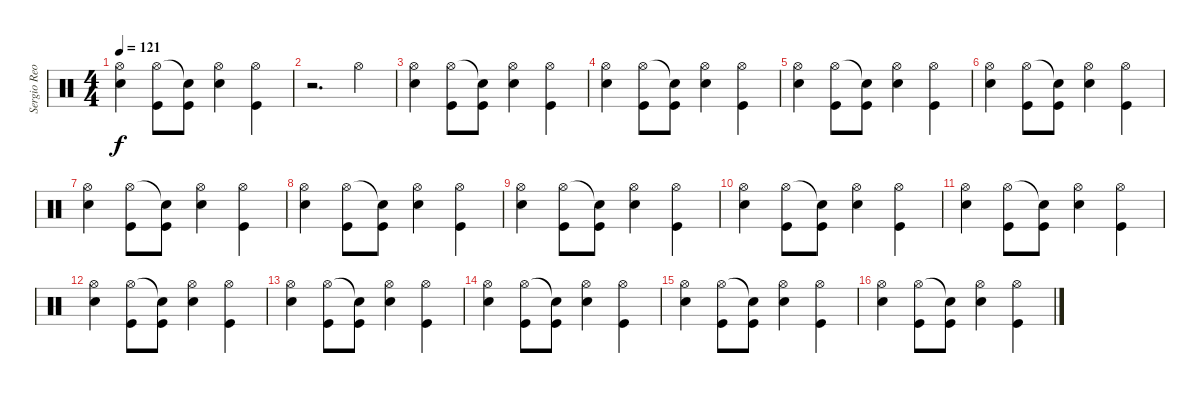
\track ("Sergio Reoli" "Sergio Reo") {instrument percussion}
\staff {score}
\articulation defaults
\ts (4 4)
\tempo 121
\clef neutral
\ks c
("Snare (hit) 2" "Hi-Hat (open)").4{dy f} ("Hi-Hat (open)" "Kick (hit)").8 ("Snare (hit)"{t} "Kick (hit)").8 ("Snare (hit) 2" "Hi-Hat (open)").4 ("Hi-Hat (open)" "Kick (hit)").4 |
r.2{d} "Hi-Hat (open)".4 |
("Snare (hit) 2" "Hi-Hat (open)").4 ("Hi-Hat (open)" "Kick (hit)").8 ("Snare (hit)"{t} "Kick (hit)").8 ("Snare (hit) 2" "Hi-Hat (open)").4 ("Hi-Hat (open)" "Kick (hit)").4 |
("Snare (hit) 2" "Hi-Hat (open)").4 ("Hi-Hat (open)" "Kick (hit)").8 ("Snare (hit)"{t} "Kick (hit)").8 ("Snare (hit) 2" "Hi-Hat (open)").4 ("Hi-Hat (open)" "Kick (hit)").4 |
("Snare (hit) 2" "Hi-Hat (open)").4 ("Hi-Hat (open)" "Kick (hit)").8 ("Snare (hit)"{t} "Kick (hit)").8 ("Snare (hit) 2" "Hi-Hat (open)").4 ("Hi-Hat (open)" "Kick (hit)").4 |
("Snare (hit) 2" "Hi-Hat (open)").4 ("Hi-Hat (open)" "Kick (hit)").8 ("Snare (hit)"{t} "Kick (hit)").8 ("Snare (hit) 2" "Hi-Hat (open)").4 ("Hi-Hat (open)" "Kick (hit)").4 |
("Snare (hit) 2" "Hi-Hat (open)").4 ("Hi-Hat (open)" "Kick (hit)").8 ("Snare (hit)"{t} "Kick (hit)").8 ("Snare (hit) 2" "Hi-Hat (open)").4 ("Hi-Hat (open)" "Kick (hit)").4 |
("Snare (hit) 2" "Hi-Hat (open)").4 ("Hi-Hat (open)" "Kick (hit)").8 ("Snare (hit)"{t} "Kick (hit)").8 ("Snare (hit) 2" "Hi-Hat (open)").4 ("Hi-Hat (open)" "Kick (hit)").4 |
("Snare (hit) 2" "Hi-Hat (open)").4 ("Hi-Hat (open)" "Kick (hit)").8 ("Snare (hit)"{t} "Kick (hit)").8 ("Snare (hit) 2" "Hi-Hat (open)").4 ("Hi-Hat (open)" "Kick (hit)").4 |
("Snare (hit) 2" "Hi-Hat (open)").4 ("Hi-Hat (open)" "Kick (hit)").8 ("Snare (hit)"{t} "Kick (hit)").8 ("Snare (hit) 2" "Hi-Hat (open)").4 ("Hi-Hat (open)" "Kick (hit)").4 |
("Snare (hit) 2" "Hi-Hat (open)").4 ("Hi-Hat (open)" "Kick (hit)").8 ("Snare (hit)"{t} "Kick (hit)").8 ("Snare (hit) 2" "Hi-Hat (open)").4 ("Hi-Hat (open)" "Kick (hit)").4 |
("Snare (hit) 2" "Hi-Hat (open)").4 ("Hi-Hat (open)" "Kick (hit)").8 ("Snare (hit)"{t} "Kick (hit)").8 ("Snare (hit) 2" "Hi-Hat (open)").4 ("Hi-Hat (open)" "Kick (hit)").4 |
("Snare (hit) 2" "Hi-Hat (open)").4 ("Hi-Hat (open)" "Kick (hit)").8 ("Snare (hit)"{t} "Kick (hit)").8 ("Snare (hit) 2" "Hi-Hat (open)").4 ("Hi-Hat (open)" "Kick (hit)").4 |
("Snare (hit) 2" "Hi-Hat (open)").4 ("Hi-Hat (open)" "Kick (hit)").8 ("Snare (hit)"{t} "Kick (hit)").8 ("Snare (hit) 2" "Hi-Hat (open)").4 ("Hi-Hat (open)" "Kick (hit)").4 |
("Snare (hit) 2" "Hi-Hat (open)").4 ("Hi-Hat (open)" "Kick (hit)").8 ("Snare (hit)"{t} "Kick (hit)").8 ("Snare (hit) 2" "Hi-Hat (open)").4 ("Hi-Hat (open)" "Kick (hit)").4 |
("Snare (hit) 2" "Hi-Hat (open)").4 ("Hi-Hat (open)" "Kick (hit)").8 ("Snare (hit)"{t} "Kick (hit)").8 ("Snare (hit) 2" "Hi-Hat (open)").4 ("Hi-Hat (open)" "Kick (hit)").4
